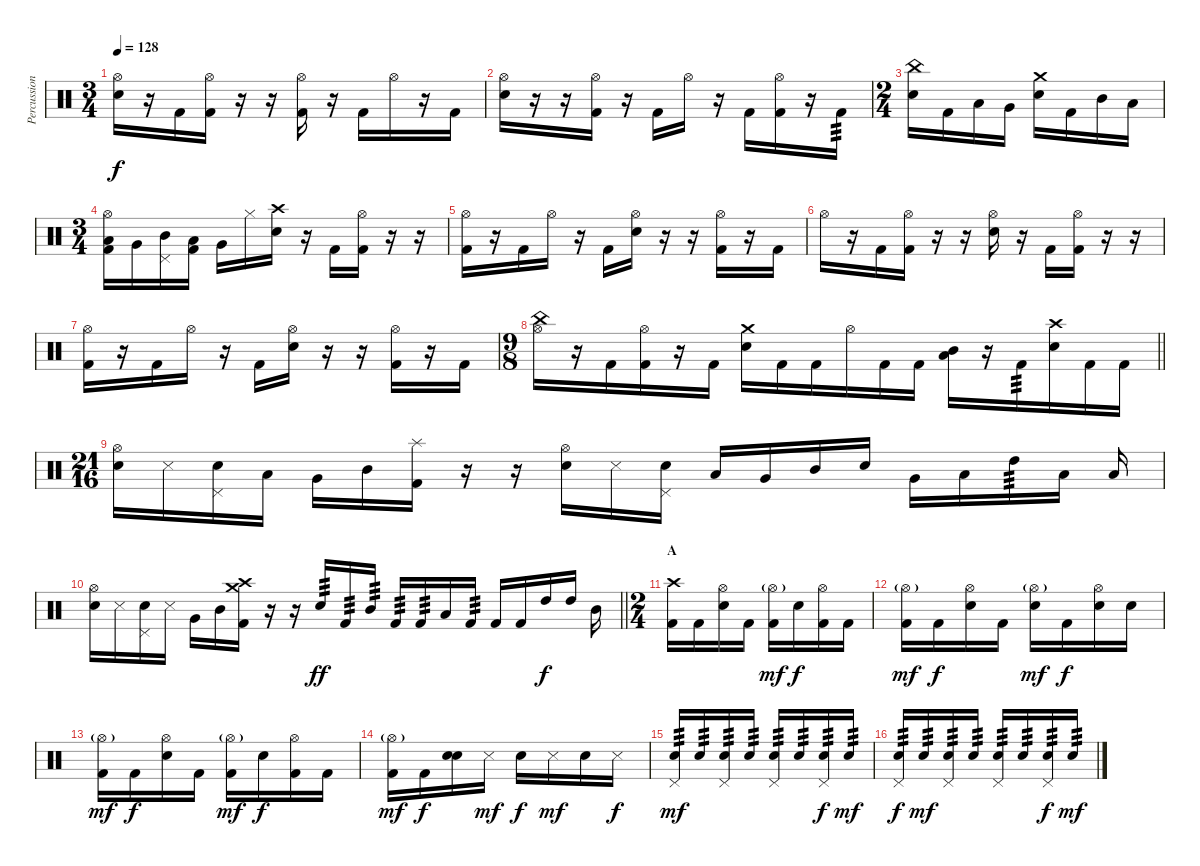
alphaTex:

\track ("Percussion" "Percussion") {instrument percussion}
\staff {score}
\articulation defaults
\ts (3 4)
\tempo 128
\clef neutral
\ks c
("Hi-Hat (open)" "Snare (hit) 2").16{dy f} r.16 "Kick (hit) 2".16 ("Hi-Hat (open)" "Kick (hit) 2").16 r.16 r.16 ("Hi-Hat (open)" "Kick (hit) 2").16 r.16 "Kick (hit) 2".16 "Hi-Hat (open)".16 r.16 "Kick (hit) 2".16 |
("Hi-Hat (open)" "Snare (hit) 2").16 r.16 r.16 ("Hi-Hat (open)" "Kick (hit) 2").16 r.16 "Kick (hit) 2".16 "Hi-Hat (open)".16 r.16 "Kick (hit) 2".16 ("Hi-Hat (open)" "Kick (hit) 2").16 r.16 "Kick (hit) 2".16{tp 3} |
\ts (2 4)
("China (hit)" "Snare (hit) 2").16 "Kick (hit) 2".16 "Low Tom (hit)".16 "Very Low Tom (hit)".16 ("Crash medium (hit)" "Snare (hit) 2").16 "Kick (hit) 2".16 "Mid Tom (hit)".16 "Low Floor Tom (hit)".16 |
\ts (3 4)
("Hi-Hat (open)" "Low Tom (hit)" "Kick (hit) 2").16 "Very Low Tom (hit)".16 ("Pedal Hi-Hat (hit)" "Mid Tom (hit)").16 ("Low Tom (hit)" "Kick (hit) 2").16 "Very Low Tom (hit)".16 "Hi-Hat (closed)".16 ("Crash high (hit)" "Snare (hit) 2").16 r.16 "Kick (hit) 2".16 ("Hi-Hat (open)" "Kick (hit) 2").16 r.16 r.16 |
("Hi-Hat (open)" "Kick (hit) 2").16 r.16 "Kick (hit) 2".16 "Hi-Hat (open)".16 r.16 "Kick (hit) 2".16 ("Hi-Hat (open)" "Snare (hit) 2").16 r.16 r.16 ("Hi-Hat (open)" "Kick (hit) 2").16 r.16 "Kick (hit) 2".16 |
"Hi-Hat (open)".16 r.16 "Kick (hit) 2".16 ("Hi-Hat (open)" "Kick (hit) 2").16 r.16 r.16 ("Hi-Hat (open)" "Snare (hit) 2").16 r.16 "Kick (hit) 2".16 ("Hi-Hat (open)" "Kick (hit) 2").16 r.16 r.16 |
("Hi-Hat (open)" "Kick (hit) 2").16 r.16 "Kick (hit) 2".16 "Hi-Hat (open)".16 r.16 "Kick (hit) 2".16 ("Hi-Hat (open)" "Snare (hit) 2").16 r.16 r.16 ("Hi-Hat (open)" "Kick (hit) 2").16 r.16 "Kick (hit) 2".16 |
\ts (9 8)
\barLineRight lightlight
("China (hit)" "Hi-Hat (open)").16 r.16 "Kick (hit) 2".16 ("Hi-Hat (open)" "Kick (hit) 2").16 r.16 "Kick (hit) 2".16 ("Crash medium (hit)" "Snare (hit) 2").16 "Kick (hit) 2".16 "Kick (hit) 2".16 "Hi-Hat (open)".16 "Kick (hit) 2".16 "Kick (hit) 2".16 ("Mid Tom (hit)" "Low Tom (hit)").16{bu 60} r.16 "Kick (hit) 2".16{tp 3} ("Crash high (hit)" "Snare (hit) 2").16 "Kick (hit) 2".16 "Kick (hit) 2".16 |
\ts (21 16)
("Hi-Hat (open)" "Snare (hit) 2").16 "Metronome (hit)".16 ("Pedal Hi-Hat (hit)" "Snare (hit) 2").16 "Low Tom (hit)".16 "Very Low Tom (hit)".16 "Mid Tom (hit)".16 ("Splash (hit)" "Kick (hit) 2").16 r.16 r.16 ("Hi-Hat (open)" "Snare (hit) 2").16 "Metronome (hit)".16 ("Pedal Hi-Hat (hit)" "Snare (hit) 2").16 "Low Tom (hit)".16 "Very Low Tom (hit)".16 "Mid Tom (hit)".16 "Snare (hit) 2".16 "Very Low Tom (hit)".16 "Low Floor Tom (hit)".16 "High Tom (hit)".16{tp 3} "Low Tom (hit)".16 "Low Floor Tom (hit)".16 |
\barLineRight lightlight
("Hi-Hat (open)" "Snare (hit) 2").16 "Metronome (hit)".16 ("Pedal Hi-Hat (hit)" "Snare (hit) 2").16 "Metronome (hit)".16 "Very Low Tom (hit)".16 "Mid Tom (hit)".16 ("Crash medium (hit)" "Crash high (hit)" "Kick (hit) 2").16 r.16 r.16 "Snare (hit) 2".16{tp 3 dy ff} "Kick (hit) 2".16{tp 3} "Mid Tom (hit)".16{tp 3} "Kick (hit) 2".16{tp 3} "Kick (hit) 2".16{tp 3} "Low Tom (hit)".16 "Kick (hit) 2".16{tp 3} "Kick (hit) 2".16 "Kick (hit) 2".16 "High Tom (hit)".16{dy f} "High Tom (hit)".16 "Mid Tom (hit)".16 |
\ts (2 4)
\section ("" "A")
("Crash high (hit)" "Kick (hit) 2").16 "Kick (hit) 2".16 ("Hi-Hat (open)" "Snare (hit) 2").16 "Kick (hit) 2".16 ("Hi-Hat (open)"{g} "Kick (hit) 2").16{dy mf} "Snare (hit) 2".16{dy f} ("Hi-Hat (open)" "Kick (hit) 2").16 "Kick (hit) 2".16 |
("Hi-Hat (open)"{g} "Kick (hit) 2").16{dy mf} "Kick (hit) 2".16{dy f} ("Hi-Hat (open)" "Snare (hit) 2").16 "Kick (hit) 2".16 ("Hi-Hat (open)"{g} "Snare (hit) 2").16{dy mf} "Kick (hit) 2".16{dy f} ("Hi-Hat (open)" "Snare (hit) 2").16 "Snare (hit) 2".16 |
("Hi-Hat (open)"{g} "Kick (hit) 2").16{dy mf} "Kick (hit) 2".16{dy f} ("Hi-Hat (open)" "Snare (hit) 2").16 "Kick (hit) 2".16 ("Hi-Hat (open)"{g} "Kick (hit) 2").16{dy mf} "Snare (hit) 2".16{dy f} ("Hi-Hat (open)" "Kick (hit) 2").16 "Kick (hit) 2".16 |
("Hi-Hat (open)"{g} "Kick (hit) 2").16{dy mf} "Kick (hit) 2".16{dy f} ("Snare (hit)" "Snare (hit) 2").16 "Metronome (hit)".16{dy mf} "Snare (hit) 2".16{dy f} "Metronome (hit)".16{dy mf} "Snare (hit) 2".16 "Metronome (hit)".16{dy f} |
("Pedal Hi-Hat (hit)" "Snare (hit) 2").16{tp 3 dy mf} "Snare (hit) 2".16{tp 3} ("Pedal Hi-Hat (hit)" "Snare (hit) 2").16{tp 3} "Snare (hit) 2".16{tp 3} ("Pedal Hi-Hat (hit)" "Snare (hit) 2").16{tp 3} "Snare (hit) 2".16{tp 3} ("Pedal Hi-Hat (hit)" "Snare (hit) 2").16{tp 3 dy f} "Snare (hit) 2".16{tp 3 dy mf} |
("Pedal Hi-Hat (hit)" "Snare (hit) 2").16{tp 3 dy f} "Snare (hit) 2".16{tp 3 dy mf} ("Pedal Hi-Hat (hit)" "Snare (hit) 2").16{tp 3} "Snare (hit) 2".16{tp 3} ("Pedal Hi-Hat (hit)" "Snare (hit) 2").16{tp 3} "Snare (hit) 2".16{tp 3} ("Pedal Hi-Hat (hit)" "Snare (hit) 2").16{tp 3 dy f} "Snare (hit) 2".16{tp 3 dy mf}
